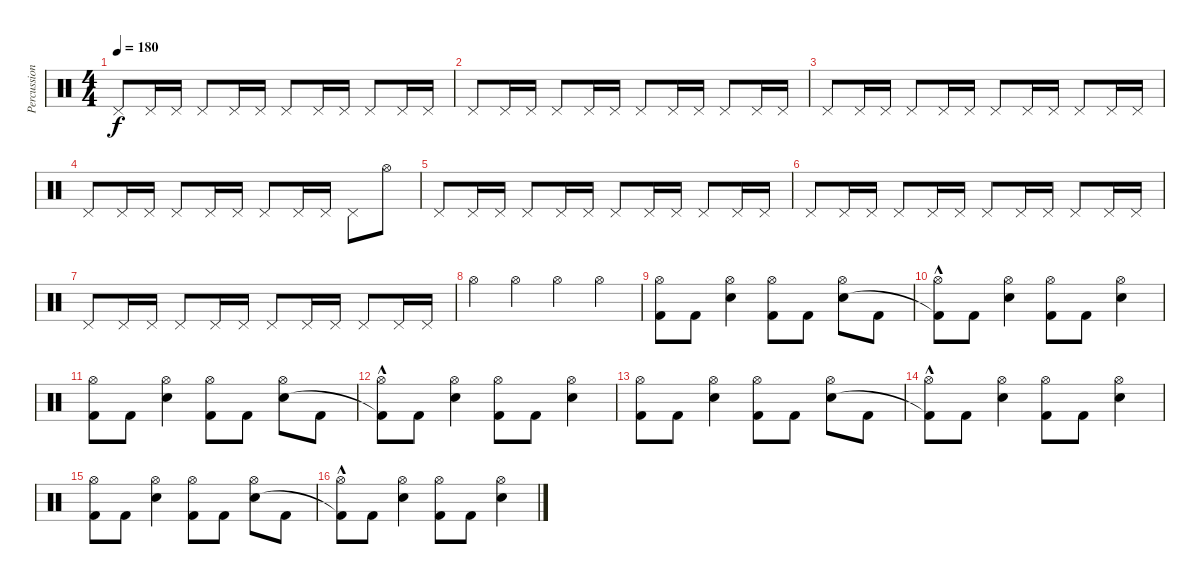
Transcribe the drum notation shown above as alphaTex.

\track ("Percussion" "Percussion") {instrument percussion}
\staff {score}
\articulation defaults
\ts (4 4)
\tempo 180
\clef neutral
\ks c "Pedal Hi-Hat (hit)".8{dy f} "Pedal Hi-Hat (hit)".16 "Pedal Hi-Hat (hit)".16 "Pedal Hi-Hat (hit)".8 "Pedal Hi-Hat (hit)".16 "Pedal Hi-Hat (hit)".16 "Pedal Hi-Hat (hit)".8 "Pedal Hi-Hat (hit)".16 "Pedal Hi-Hat (hit)".16 "Pedal Hi-Hat (hit)".8 "Pedal Hi-Hat (hit)".16 "Pedal Hi-Hat (hit)".16
|
"Pedal Hi-Hat (hit)".8 "Pedal Hi-Hat (hit)".16 "Pedal Hi-Hat (hit)".16 "Pedal Hi-Hat (hit)".8 "Pedal Hi-Hat (hit)".16 "Pedal Hi-Hat (hit)".16 "Pedal Hi-Hat (hit)".8 "Pedal Hi-Hat (hit)".16 "Pedal Hi-Hat (hit)".16 "Pedal Hi-Hat (hit)".8 "Pedal Hi-Hat (hit)".16 "Pedal Hi-Hat (hit)".16 |
"Pedal Hi-Hat (hit)".8 "Pedal Hi-Hat (hit)".16 "Pedal Hi-Hat (hit)".16 "Pedal Hi-Hat (hit)".8 "Pedal Hi-Hat (hit)".16 "Pedal Hi-Hat (hit)".16 "Pedal Hi-Hat (hit)".8 "Pedal Hi-Hat (hit)".16 "Pedal Hi-Hat (hit)".16 "Pedal Hi-Hat (hit)".8 "Pedal Hi-Hat (hit)".16 "Pedal Hi-Hat (hit)".16 |
"Pedal Hi-Hat (hit)".8 "Pedal Hi-Hat (hit)".16 "Pedal Hi-Hat (hit)".16 "Pedal Hi-Hat (hit)".8 "Pedal Hi-Hat (hit)".16 "Pedal Hi-Hat (hit)".16 "Pedal Hi-Hat (hit)".8 "Pedal Hi-Hat (hit)".16 "Pedal Hi-Hat (hit)".16 "Pedal Hi-Hat (hit)".8 "Hi-Hat (open)".8 |
"Pedal Hi-Hat (hit)".8 "Pedal Hi-Hat (hit)".16 "Pedal Hi-Hat (hit)".16 "Pedal Hi-Hat (hit)".8 "Pedal Hi-Hat (hit)".16 "Pedal Hi-Hat (hit)".16 "Pedal Hi-Hat (hit)".8 "Pedal Hi-Hat (hit)".16 "Pedal Hi-Hat (hit)".16 "Pedal Hi-Hat (hit)".8 "Pedal Hi-Hat (hit)".16 "Pedal Hi-Hat (hit)".16 |
"Pedal Hi-Hat (hit)".8 "Pedal Hi-Hat (hit)".16 "Pedal Hi-Hat (hit)".16 "Pedal Hi-Hat (hit)".8 "Pedal Hi-Hat (hit)".16 "Pedal Hi-Hat (hit)".16 "Pedal Hi-Hat (hit)".8 "Pedal Hi-Hat (hit)".16 "Pedal Hi-Hat (hit)".16 "Pedal Hi-Hat (hit)".8 "Pedal Hi-Hat (hit)".16 "Pedal Hi-Hat (hit)".16 |
"Pedal Hi-Hat (hit)".8 "Pedal Hi-Hat (hit)".16 "Pedal Hi-Hat (hit)".16 "Pedal Hi-Hat (hit)".8 "Pedal Hi-Hat (hit)".16 "Pedal Hi-Hat (hit)".16 "Pedal Hi-Hat (hit)".8 "Pedal Hi-Hat (hit)".16 "Pedal Hi-Hat (hit)".16 "Pedal Hi-Hat (hit)".8 "Pedal Hi-Hat (hit)".16 "Pedal Hi-Hat (hit)".16 |
"Hi-Hat (open)".4 "Hi-Hat (open)".4 "Hi-Hat (open)".4 "Hi-Hat (open)".4 |
("Hi-Hat (open)" "Kick (hit) 2").8 "Kick (hit) 2".8 ("Hi-Hat (open)" "Electric Snare (hit)").4 ("Hi-Hat (open)" "Kick (hit) 2").8 "Kick (hit) 2".8 ("Hi-Hat (open)" "Electric Snare (hit)").8 "Kick (hit) 2".8 |
("Hi-Hat (open)" "Kick (hit) 2"{hac t}).8 "Kick (hit) 2".8 ("Hi-Hat (open)" "Electric Snare (hit)").4 ("Hi-Hat (open)" "Kick (hit) 2").8 "Kick (hit) 2".8 ("Hi-Hat (open)" "Electric Snare (hit)").4 |
("Hi-Hat (open)" "Kick (hit) 2").8 "Kick (hit) 2".8 ("Hi-Hat (open)" "Electric Snare (hit)").4 ("Hi-Hat (open)" "Kick (hit) 2").8 "Kick (hit) 2".8 ("Hi-Hat (open)" "Electric Snare (hit)").8 "Kick (hit) 2".8 |
("Hi-Hat (open)" "Kick (hit) 2"{hac t}).8 "Kick (hit) 2".8 ("Hi-Hat (open)" "Electric Snare (hit)").4 ("Hi-Hat (open)" "Kick (hit) 2").8 "Kick (hit) 2".8 ("Hi-Hat (open)" "Electric Snare (hit)").4 |
("Hi-Hat (open)" "Kick (hit) 2").8 "Kick (hit) 2".8 ("Hi-Hat (open)" "Electric Snare (hit)").4 ("Hi-Hat (open)" "Kick (hit) 2").8 "Kick (hit) 2".8 ("Hi-Hat (open)" "Electric Snare (hit)").8 "Kick (hit) 2".8 |
("Hi-Hat (open)" "Kick (hit) 2"{hac t}).8 "Kick (hit) 2".8 ("Hi-Hat (open)" "Electric Snare (hit)").4 ("Hi-Hat (open)" "Kick (hit) 2").8 "Kick (hit) 2".8 ("Hi-Hat (open)" "Electric Snare (hit)").4 |
("Hi-Hat (open)" "Kick (hit) 2").8 "Kick (hit) 2".8 ("Hi-Hat (open)" "Electric Snare (hit)").4 ("Hi-Hat (open)" "Kick (hit) 2").8 "Kick (hit) 2".8 ("Hi-Hat (open)" "Electric Snare (hit)").8 "Kick (hit) 2".8 |
("Hi-Hat (open)" "Kick (hit) 2"{hac t}).8 "Kick (hit) 2".8 ("Hi-Hat (open)" "Electric Snare (hit)").4 ("Hi-Hat (open)" "Kick (hit) 2").8 "Kick (hit) 2".8 ("Hi-Hat (open)" "Electric Snare (hit)").4
